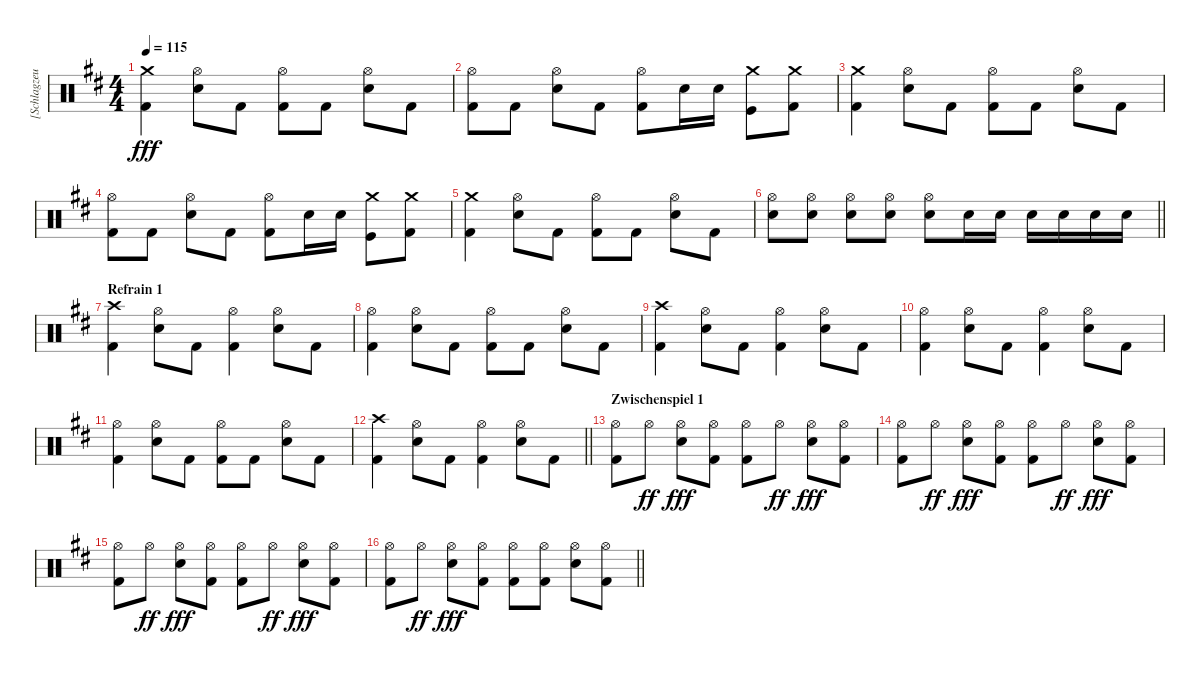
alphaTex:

\track ("[Schlagzeug]" "[Schlagzeu") {instrument percussion}
\staff {score}
\articulation defaults
\ts (4 4)
\tempo 115
\clef neutral
\ks bminor
("Crash medium (hit)" "Kick (hit) 2").4{dy fff} ("Electric Snare (hit)" "Hi-Hat (open)").8 "Kick (hit) 2".8 ("Hi-Hat (open)" "Kick (hit) 2").8 "Kick (hit) 2".8 ("Electric Snare (hit)" "Hi-Hat (open)").8 "Kick (hit) 2".8 |
("Hi-Hat (open)" "Kick (hit) 2").8 "Kick (hit) 2".8 ("Electric Snare (hit)" "Hi-Hat (open)").8 "Kick (hit) 2".8 ("Hi-Hat (open)" "Kick (hit) 2").8 "Electric Snare (hit)".16 "Electric Snare (hit)".16 ("Crash medium (hit)" "Kick (hit)").8 ("Crash medium (hit)" "Kick (hit) 2").8 |
("Crash medium (hit)" "Kick (hit) 2").4 ("Electric Snare (hit)" "Hi-Hat (open)").8 "Kick (hit) 2".8 ("Hi-Hat (open)" "Kick (hit) 2").8 "Kick (hit) 2".8 ("Electric Snare (hit)" "Hi-Hat (open)").8 "Kick (hit) 2".8 |
("Hi-Hat (open)" "Kick (hit) 2").8 "Kick (hit) 2".8 ("Electric Snare (hit)" "Hi-Hat (open)").8 "Kick (hit) 2".8 ("Hi-Hat (open)" "Kick (hit) 2").8 "Electric Snare (hit)".16 "Electric Snare (hit)".16 ("Crash medium (hit)" "Kick (hit)").8 ("Crash medium (hit)" "Kick (hit) 2").8 |
("Crash medium (hit)" "Kick (hit) 2").4 ("Electric Snare (hit)" "Hi-Hat (open)").8 "Kick (hit) 2".8 ("Hi-Hat (open)" "Kick (hit) 2").8 "Kick (hit) 2".8 ("Electric Snare (hit)" "Hi-Hat (open)").8 "Kick (hit) 2".8 |
\barLineRight lightlight
("Electric Snare (hit)" "Hi-Hat (open)").8 ("Electric Snare (hit)" "Hi-Hat (open)").8 ("Electric Snare (hit)" "Hi-Hat (open)").8 ("Electric Snare (hit)" "Hi-Hat (open)").8 ("Electric Snare (hit)" "Hi-Hat (open)").8 "Electric Snare (hit)".16 "Electric Snare (hit)".16 "Electric Snare (hit)".16 "Electric Snare (hit)".16 "Electric Snare (hit)".16 "Electric Snare (hit)".16 |
\section ("" "Refrain 1")
("Crash high (hit)" "Kick (hit) 2").4 ("Hi-Hat (open)" "Electric Snare (hit)").8 "Kick (hit) 2".8 ("Hi-Hat (open)" "Kick (hit) 2").4 ("Hi-Hat (open)" "Electric Snare (hit)").8 "Kick (hit) 2".8 |
("Hi-Hat (open)" "Kick (hit) 2").4 ("Hi-Hat (open)" "Electric Snare (hit)").8 "Kick (hit) 2".8 ("Hi-Hat (open)" "Kick (hit) 2").8 "Kick (hit) 2".8 ("Hi-Hat (open)" "Electric Snare (hit)").8 "Kick (hit) 2".8 |
("Crash high (hit)" "Kick (hit) 2").4 ("Hi-Hat (open)" "Electric Snare (hit)").8 "Kick (hit) 2".8 ("Hi-Hat (open)" "Kick (hit) 2").4 ("Hi-Hat (open)" "Electric Snare (hit)").8 "Kick (hit) 2".8 |
("Hi-Hat (open)" "Kick (hit) 2").4 ("Hi-Hat (open)" "Electric Snare (hit)").8 "Kick (hit) 2".8 ("Hi-Hat (open)" "Kick (hit) 2").4 ("Hi-Hat (open)" "Electric Snare (hit)").8 "Kick (hit) 2".8 |
("Hi-Hat (open)" "Kick (hit) 2").4 ("Hi-Hat (open)" "Electric Snare (hit)").8 "Kick (hit) 2".8 ("Hi-Hat (open)" "Kick (hit) 2").8 "Kick (hit) 2".8 ("Hi-Hat (open)" "Electric Snare (hit)").8 "Kick (hit) 2".8 |
\barLineRight lightlight
("Crash high (hit)" "Kick (hit) 2").4 ("Hi-Hat (open)" "Electric Snare (hit)").8 "Kick (hit) 2".8 ("Hi-Hat (open)" "Kick (hit) 2").4 ("Hi-Hat (open)" "Electric Snare (hit)").8 "Kick (hit) 2".8 |
\section ("" "Zwischenspiel 1")
("Hi-Hat (open)" "Kick (hit) 2").8 "Hi-Hat (open)".8{dy ff} ("Hi-Hat (open)" "Electric Snare (hit)").8{dy fff} ("Hi-Hat (open)" "Kick (hit) 2").8 ("Hi-Hat (open)" "Kick (hit) 2").8 "Hi-Hat (open)".8{dy ff} ("Hi-Hat (open)" "Electric Snare (hit)").8{dy fff} ("Hi-Hat (open)" "Kick (hit) 2").8 |
("Hi-Hat (open)" "Kick (hit) 2").8 "Hi-Hat (open)".8{dy ff} ("Hi-Hat (open)" "Electric Snare (hit)").8{dy fff} ("Hi-Hat (open)" "Kick (hit) 2").8 ("Hi-Hat (open)" "Kick (hit) 2").8 "Hi-Hat (open)".8{dy ff} ("Hi-Hat (open)" "Electric Snare (hit)").8{dy fff} ("Hi-Hat (open)" "Kick (hit) 2").8 |
("Hi-Hat (open)" "Kick (hit) 2").8 "Hi-Hat (open)".8{dy ff} ("Hi-Hat (open)" "Electric Snare (hit)").8{dy fff} ("Hi-Hat (open)" "Kick (hit) 2").8 ("Hi-Hat (open)" "Kick (hit) 2").8 "Hi-Hat (open)".8{dy ff} ("Hi-Hat (open)" "Electric Snare (hit)").8{dy fff} ("Hi-Hat (open)" "Kick (hit) 2").8 |
\barLineRight lightlight
("Hi-Hat (open)" "Kick (hit) 2").8 "Hi-Hat (open)".8{dy ff} ("Hi-Hat (open)" "Electric Snare (hit)").8{dy fff} ("Hi-Hat (open)" "Kick (hit) 2").8 ("Hi-Hat (open)" "Kick (hit) 2").8 ("Hi-Hat (open)" "Kick (hit) 2").8 ("Hi-Hat (open)" "Electric Snare (hit)").8 ("Hi-Hat (open)" "Kick (hit) 2").8
